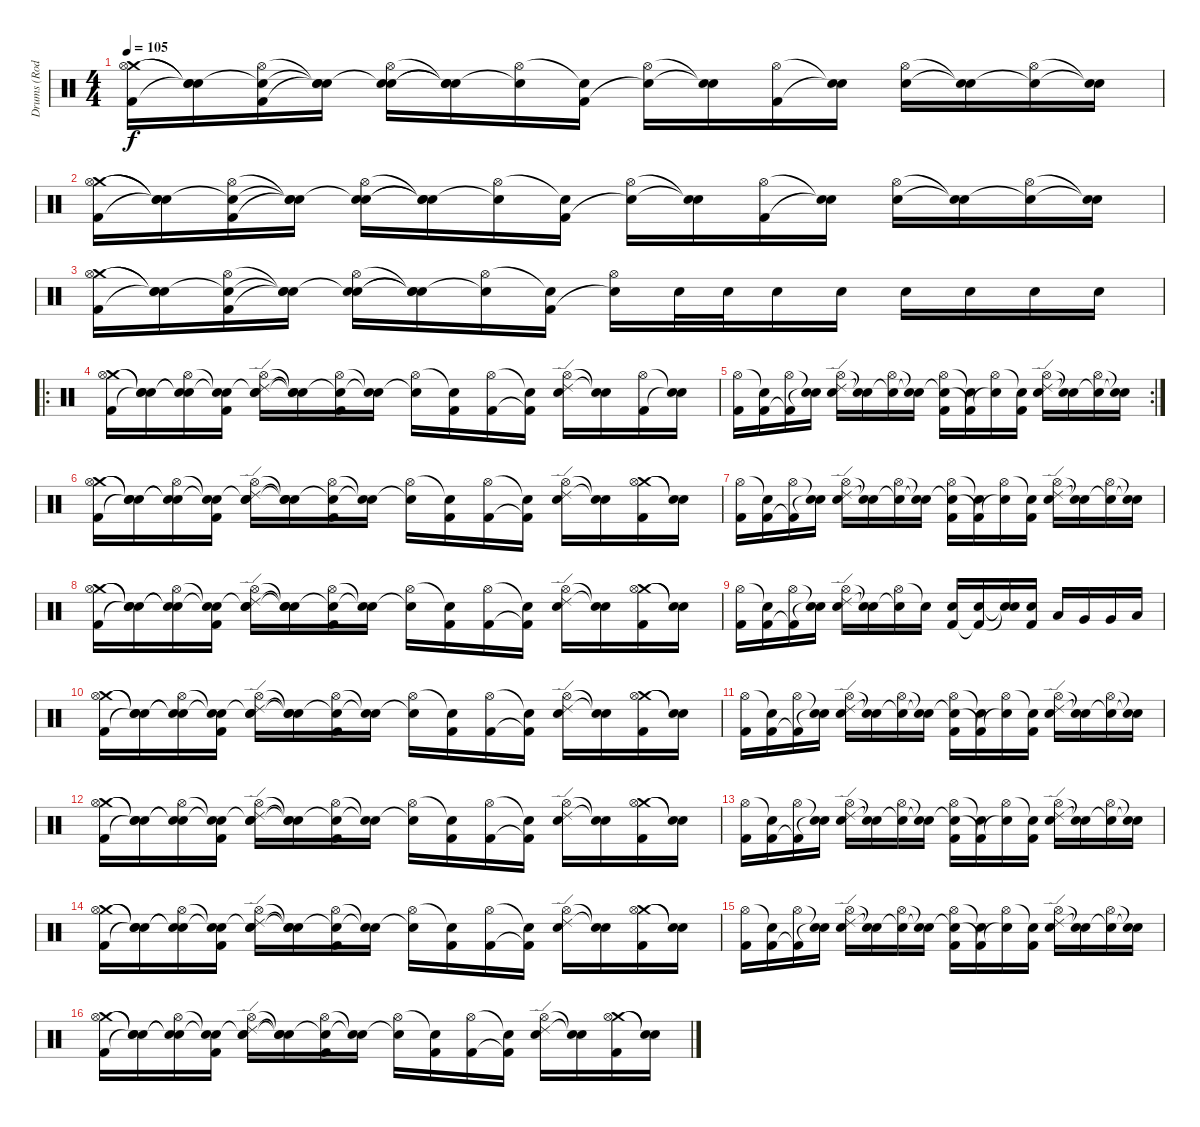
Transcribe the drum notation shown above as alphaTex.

\track ("Drums (Rod Bourdon)" "Drums (Rod") {instrument percussion}
\staff {score}
\articulation defaults
\ts (4 4)
\tempo 105
\clef neutral
\ks c
("Crash medium (hit)" "Hi-Hat (open)" "Kick (hit) 2").16{dy f} ("Snare (hit)"{t} "Snare (hit)"{t} "Snare (hit)"{t}).16 ("Snare (hit)"{t} "Hi-Hat (open)" "Kick (hit) 2").16 ("Snare (hit)"{t} "Snare (hit)"{t} "Snare (hit)"{t}).16 ("Snare (hit)"{t} "Hi-Hat (open)" "Electric Snare (hit)").16 ("Snare (hit)"{t} "Snare (hit)"{t} "Snare (hit)"{t}).16 ("Hi-Hat (open)" "Snare (hit)"{t}).16 ("Snare (hit)"{t} "Kick (hit) 2").16 ("Hi-Hat (open)" "Snare (hit)"{t}).16 ("Snare (hit)"{t} "Snare (hit)"{t}).16 ("Hi-Hat (open)" "Kick (hit) 2").16 ("Snare (hit)"{t} "Snare (hit)"{t}).16 ("Hi-Hat (open)" "Electric Snare (hit)").16 ("Snare (hit)"{t} "Snare (hit)"{t}).16 ("Hi-Hat (open)" "Snare (hit)"{t}).16 ("Snare (hit)"{t} "Snare (hit)"{t}).16 |
("Crash medium (hit)" "Hi-Hat (open)" "Kick (hit) 2").16 ("Snare (hit)"{t} "Snare (hit)"{t} "Snare (hit)"{t}).16 ("Snare (hit)"{t} "Hi-Hat (open)" "Kick (hit) 2").16 ("Snare (hit)"{t} "Snare (hit)"{t} "Snare (hit)"{t}).16 ("Snare (hit)"{t} "Hi-Hat (open)" "Electric Snare (hit)").16 ("Snare (hit)"{t} "Snare (hit)"{t} "Snare (hit)"{t}).16 ("Hi-Hat (open)" "Snare (hit)"{t}).16 ("Snare (hit)"{t} "Kick (hit) 2").16 ("Hi-Hat (open)" "Snare (hit)"{t}).16 ("Snare (hit)"{t} "Snare (hit)"{t}).16 ("Hi-Hat (open)" "Kick (hit) 2").16 ("Snare (hit)"{t} "Snare (hit)"{t}).16 ("Hi-Hat (open)" "Electric Snare (hit)").16 ("Snare (hit)"{t} "Snare (hit)"{t}).16 ("Hi-Hat (open)" "Snare (hit)"{t}).16 ("Snare (hit)"{t} "Snare (hit)"{t}).16 |
("Crash medium (hit)" "Hi-Hat (open)" "Kick (hit) 2").16 ("Snare (hit)"{t} "Snare (hit)"{t} "Snare (hit)"{t}).16 ("Snare (hit)"{t} "Hi-Hat (open)" "Kick (hit) 2").16 ("Snare (hit)"{t} "Snare (hit)"{t} "Snare (hit)"{t}).16 ("Snare (hit)"{t} "Hi-Hat (open)" "Electric Snare (hit)").16 ("Snare (hit)"{t} "Snare (hit)"{t} "Snare (hit)"{t}).16 ("Hi-Hat (open)" "Snare (hit)"{t}).16 ("Snare (hit)"{t} "Kick (hit) 2").16 ("Hi-Hat (open)" "Snare (hit)"{t}).16 "Electric Snare (hit)".32 "Electric Snare (hit)".32 "Electric Snare (hit)".16 "Electric Snare (hit)".16 "Electric Snare (hit)".16 "Electric Snare (hit)".16 "Electric Snare (hit)".16 "Electric Snare (hit)".16 |
\ro
("Crash medium (hit)" "Hi-Hat (open)" "Kick (hit) 2").16 ("Snare (hit)"{t} "Snare (hit)"{t} "Snare (hit)"{t}).16 ("Snare (hit)"{t} "Hi-Hat (open)" "Snare (hit)"{t}).16 ("Snare (hit)"{t} "Snare (hit)"{t} "Kick (hit) 2").16 ("Snare (hit)"{t} "Hi-Hat (open)" "Ride (edge) 2" "Electric Snare (hit)").16 ("Snare (hit)"{t} "Snare (hit)"{t} "Snare (hit)"{t}).16 ("Snare (hit)"{t} "Hi-Hat (open)" "Kick (hit) 2").16 ("Snare (hit)"{t} "Snare (hit)"{t}).16 ("Hi-Hat (open)" "Snare (hit)"{t}).16 ("Snare (hit)"{t} "Kick (hit) 2").16 ("Hi-Hat (open)" "Kick (hit) 2").16 ("Snare (hit)"{t} "Kick (hit) 2"{t}).16 ("Hi-Hat (open)" "Ride (edge) 2" "Electric Snare (hit)").16 ("Snare (hit)"{t} "Snare (hit)"{t}).16 ("Hi-Hat (open)" "Kick (hit) 2").16 ("Snare (hit)"{t} "Snare (hit)"{t}).16 |
\rc 2
("Hi-Hat (open)" "Kick (hit) 2").16 ("Snare (hit)"{t} "Kick (hit) 2").16 ("Hi-Hat (open)" "Kick (hit) 2"{t}).16 ("Snare (hit)"{t} "Snare (hit)"{t}).16 ("Hi-Hat (open)" "Ride (edge) 2" "Electric Snare (hit)").16 ("Snare (hit)"{t} "Snare (hit)"{t}).16 ("Hi-Hat (open)" "Snare (hit)"{t}).16 ("Snare (hit)"{t} "Snare (hit)"{t}).16 ("Hi-Hat (open)" "Snare (hit)"{t} "Kick (hit) 2").16 ("Snare (hit)"{t} "Kick (hit) 2"{t}).16 ("Hi-Hat (open)" "Snare (hit)"{t}).16 ("Snare (hit)"{t} "Kick (hit) 2").16 ("Hi-Hat (open)" "Ride (edge) 2" "Electric Snare (hit)").16 ("Snare (hit)"{t} "Snare (hit)"{t}).16 ("Hi-Hat (open)" "Snare (hit)"{t}).16 ("Snare (hit)"{t} "Snare (hit)"{t}).16 |
("Crash medium (hit)" "Hi-Hat (open)" "Kick (hit) 2").16 ("Snare (hit)"{t} "Snare (hit)"{t} "Snare (hit)"{t}).16 ("Snare (hit)"{t} "Hi-Hat (open)" "Snare (hit)"{t}).16 ("Snare (hit)"{t} "Snare (hit)"{t} "Kick (hit) 2").16 ("Snare (hit)"{t} "Hi-Hat (open)" "Ride (edge) 2" "Electric Snare (hit)").16 ("Snare (hit)"{t} "Snare (hit)"{t} "Snare (hit)"{t}).16 ("Snare (hit)"{t} "Hi-Hat (open)" "Kick (hit) 2").16 ("Snare (hit)"{t} "Snare (hit)"{t}).16 ("Hi-Hat (open)" "Snare (hit)"{t}).16 ("Snare (hit)"{t} "Kick (hit) 2").16 ("Hi-Hat (open)" "Kick (hit) 2").16 ("Snare (hit)"{t} "Kick (hit) 2"{t}).16 ("Hi-Hat (open)" "Ride (edge) 2" "Electric Snare (hit)").16 ("Snare (hit)"{t} "Snare (hit)"{t}).16 ("Crash medium (hit)" "Hi-Hat (open)" "Kick (hit) 2").16 ("Snare (hit)"{t} "Snare (hit)"{t}).16 |
("Hi-Hat (open)" "Kick (hit) 2").16 ("Snare (hit)"{t} "Kick (hit) 2").16 ("Hi-Hat (open)" "Kick (hit) 2"{t}).16 ("Snare (hit)"{t} "Snare (hit)"{t}).16 ("Hi-Hat (open)" "Ride (edge) 2" "Electric Snare (hit)").16 ("Snare (hit)"{t} "Snare (hit)"{t}).16 ("Hi-Hat (open)" "Snare (hit)"{t}).16 ("Snare (hit)"{t} "Snare (hit)"{t}).16 ("Hi-Hat (open)" "Snare (hit)"{t} "Kick (hit) 2").16 ("Snare (hit)"{t} "Kick (hit) 2"{t}).16 ("Hi-Hat (open)" "Snare (hit)"{t}).16 ("Snare (hit)"{t} "Kick (hit) 2").16 ("Hi-Hat (open)" "Ride (edge) 2" "Electric Snare (hit)").16 ("Snare (hit)"{t} "Snare (hit)"{t}).16 ("Hi-Hat (open)" "Snare (hit)"{t}).16 ("Snare (hit)"{t} "Snare (hit)"{t}).16 |
("Crash medium (hit)" "Hi-Hat (open)" "Kick (hit) 2").16 ("Snare (hit)"{t} "Snare (hit)"{t} "Snare (hit)"{t}).16 ("Snare (hit)"{t} "Hi-Hat (open)" "Snare (hit)"{t}).16 ("Snare (hit)"{t} "Snare (hit)"{t} "Kick (hit) 2").16 ("Snare (hit)"{t} "Hi-Hat (open)" "Ride (edge) 2" "Electric Snare (hit)").16 ("Snare (hit)"{t} "Snare (hit)"{t} "Snare (hit)"{t}).16 ("Snare (hit)"{t} "Hi-Hat (open)" "Kick (hit) 2").16 ("Snare (hit)"{t} "Snare (hit)"{t}).16 ("Hi-Hat (open)" "Snare (hit)"{t}).16 ("Snare (hit)"{t} "Kick (hit) 2").16 ("Hi-Hat (open)" "Kick (hit) 2").16 ("Snare (hit)"{t} "Kick (hit) 2"{t}).16 ("Hi-Hat (open)" "Ride (edge) 2" "Electric Snare (hit)").16 ("Snare (hit)"{t} "Snare (hit)"{t}).16 ("Crash medium (hit)" "Hi-Hat (open)" "Kick (hit) 2").16 ("Snare (hit)"{t} "Snare (hit)"{t}).16 |
("Hi-Hat (open)" "Kick (hit) 2").16 ("Snare (hit)"{t} "Kick (hit) 2").16 ("Hi-Hat (open)" "Kick (hit) 2"{t}).16 ("Snare (hit)"{t} "Snare (hit)"{t}).16 ("Hi-Hat (open)" "Ride (edge) 2" "Electric Snare (hit)").16 ("Snare (hit)"{t} "Snare (hit)"{t}).16 ("Hi-Hat (open)" "Snare (hit)"{t}).16 "Snare (hit)"{t}.16 ("Electric Snare (hit)" "Kick (hit) 2").16 ("Electric Snare (hit)" "Kick (hit) 2"{t}).16 ("Electric Snare (hit)"{t} "Snare (hit)"{t}).16 ("Electric Snare (hit)" "Kick (hit) 2").16 "Low Tom (hit)".16 "Very Low Tom (hit)".16 "Very Low Tom (hit)".16 "Low Floor Tom (hit)".16 |
("Crash medium (hit)" "Hi-Hat (open)" "Kick (hit) 2").16 ("Snare (hit)"{t} "Snare (hit)"{t} "Snare (hit)"{t}).16 ("Snare (hit)"{t} "Hi-Hat (open)" "Snare (hit)"{t}).16 ("Snare (hit)"{t} "Snare (hit)"{t} "Kick (hit) 2").16 ("Snare (hit)"{t} "Hi-Hat (open)" "Ride (edge) 2" "Electric Snare (hit)").16 ("Snare (hit)"{t} "Snare (hit)"{t} "Snare (hit)"{t}).16 ("Snare (hit)"{t} "Hi-Hat (open)" "Kick (hit) 2").16 ("Snare (hit)"{t} "Snare (hit)"{t}).16 ("Hi-Hat (open)" "Snare (hit)"{t}).16 ("Snare (hit)"{t} "Kick (hit) 2").16 ("Hi-Hat (open)" "Kick (hit) 2").16 ("Snare (hit)"{t} "Kick (hit) 2"{t}).16 ("Hi-Hat (open)" "Ride (edge) 2" "Electric Snare (hit)").16 ("Snare (hit)"{t} "Snare (hit)"{t}).16 ("Crash medium (hit)" "Hi-Hat (open)" "Kick (hit) 2").16 ("Snare (hit)"{t} "Snare (hit)"{t}).16 |
("Hi-Hat (open)" "Kick (hit) 2").16 ("Snare (hit)"{t} "Kick (hit) 2").16 ("Hi-Hat (open)" "Kick (hit) 2"{t}).16 ("Snare (hit)"{t} "Snare (hit)"{t}).16 ("Hi-Hat (open)" "Ride (edge) 2" "Electric Snare (hit)").16 ("Snare (hit)"{t} "Snare (hit)"{t}).16 ("Hi-Hat (open)" "Snare (hit)"{t}).16 ("Snare (hit)"{t} "Snare (hit)"{t}).16 ("Hi-Hat (open)" "Snare (hit)"{t} "Kick (hit) 2").16 ("Snare (hit)"{t} "Kick (hit) 2"{t}).16 ("Hi-Hat (open)" "Snare (hit)"{t}).16 ("Snare (hit)"{t} "Kick (hit) 2").16 ("Hi-Hat (open)" "Ride (edge) 2" "Electric Snare (hit)").16 ("Snare (hit)"{t} "Snare (hit)"{t}).16 ("Hi-Hat (open)" "Snare (hit)"{t}).16 ("Snare (hit)"{t} "Snare (hit)"{t}).16 |
("Crash medium (hit)" "Hi-Hat (open)" "Kick (hit) 2").16 ("Snare (hit)"{t} "Snare (hit)"{t} "Snare (hit)"{t}).16 ("Snare (hit)"{t} "Hi-Hat (open)" "Snare (hit)"{t}).16 ("Snare (hit)"{t} "Snare (hit)"{t} "Kick (hit) 2").16 ("Snare (hit)"{t} "Hi-Hat (open)" "Ride (edge) 2" "Electric Snare (hit)").16 ("Snare (hit)"{t} "Snare (hit)"{t} "Snare (hit)"{t}).16 ("Snare (hit)"{t} "Hi-Hat (open)" "Kick (hit) 2").16 ("Snare (hit)"{t} "Snare (hit)"{t}).16 ("Hi-Hat (open)" "Snare (hit)"{t}).16 ("Snare (hit)"{t} "Kick (hit) 2").16 ("Hi-Hat (open)" "Kick (hit) 2").16 ("Snare (hit)"{t} "Kick (hit) 2"{t}).16 ("Hi-Hat (open)" "Ride (edge) 2" "Electric Snare (hit)").16 ("Snare (hit)"{t} "Snare (hit)"{t}).16 ("Crash medium (hit)" "Hi-Hat (open)" "Kick (hit) 2").16 ("Snare (hit)"{t} "Snare (hit)"{t}).16 |
("Hi-Hat (open)" "Kick (hit) 2").16 ("Snare (hit)"{t} "Kick (hit) 2").16 ("Hi-Hat (open)" "Kick (hit) 2"{t}).16 ("Snare (hit)"{t} "Snare (hit)"{t}).16 ("Hi-Hat (open)" "Ride (edge) 2" "Electric Snare (hit)").16 ("Snare (hit)"{t} "Snare (hit)"{t}).16 ("Hi-Hat (open)" "Snare (hit)"{t}).16 ("Snare (hit)"{t} "Snare (hit)"{t}).16 ("Hi-Hat (open)" "Snare (hit)"{t} "Kick (hit) 2").16 ("Snare (hit)"{t} "Kick (hit) 2"{t}).16 ("Hi-Hat (open)" "Snare (hit)"{t}).16 ("Snare (hit)"{t} "Kick (hit) 2").16 ("Hi-Hat (open)" "Ride (edge) 2" "Electric Snare (hit)").16 ("Snare (hit)"{t} "Snare (hit)"{t}).16 ("Hi-Hat (open)" "Snare (hit)"{t}).16 ("Snare (hit)"{t} "Snare (hit)"{t}).16 |
("Crash medium (hit)" "Hi-Hat (open)" "Kick (hit) 2").16 ("Snare (hit)"{t} "Snare (hit)"{t} "Snare (hit)"{t}).16 ("Snare (hit)"{t} "Hi-Hat (open)" "Snare (hit)"{t}).16 ("Snare (hit)"{t} "Snare (hit)"{t} "Kick (hit) 2").16 ("Snare (hit)"{t} "Hi-Hat (open)" "Ride (edge) 2" "Electric Snare (hit)").16 ("Snare (hit)"{t} "Snare (hit)"{t} "Snare (hit)"{t}).16 ("Snare (hit)"{t} "Hi-Hat (open)" "Kick (hit) 2").16 ("Snare (hit)"{t} "Snare (hit)"{t}).16 ("Hi-Hat (open)" "Snare (hit)"{t}).16 ("Snare (hit)"{t} "Kick (hit) 2").16 ("Hi-Hat (open)" "Kick (hit) 2").16 ("Snare (hit)"{t} "Kick (hit) 2"{t}).16 ("Hi-Hat (open)" "Ride (edge) 2" "Electric Snare (hit)").16 ("Snare (hit)"{t} "Snare (hit)"{t}).16 ("Crash medium (hit)" "Hi-Hat (open)" "Kick (hit) 2").16 ("Snare (hit)"{t} "Snare (hit)"{t}).16 |
("Hi-Hat (open)" "Kick (hit) 2").16 ("Snare (hit)"{t} "Kick (hit) 2").16 ("Hi-Hat (open)" "Kick (hit) 2"{t}).16 ("Snare (hit)"{t} "Snare (hit)"{t}).16 ("Hi-Hat (open)" "Ride (edge) 2" "Electric Snare (hit)").16 ("Snare (hit)"{t} "Snare (hit)"{t}).16 ("Hi-Hat (open)" "Snare (hit)"{t}).16 ("Snare (hit)"{t} "Snare (hit)"{t}).16 ("Hi-Hat (open)" "Snare (hit)"{t} "Kick (hit) 2").16 ("Snare (hit)"{t} "Kick (hit) 2"{t}).16 ("Hi-Hat (open)" "Snare (hit)"{t}).16 ("Snare (hit)"{t} "Kick (hit) 2").16 ("Hi-Hat (open)" "Ride (edge) 2" "Electric Snare (hit)").16 ("Snare (hit)"{t} "Snare (hit)"{t}).16 ("Hi-Hat (open)" "Snare (hit)"{t}).16 ("Snare (hit)"{t} "Snare (hit)"{t}).16 |
("Crash medium (hit)" "Hi-Hat (open)" "Kick (hit) 2").16 ("Snare (hit)"{t} "Snare (hit)"{t} "Snare (hit)"{t}).16 ("Snare (hit)"{t} "Hi-Hat (open)" "Snare (hit)"{t}).16 ("Snare (hit)"{t} "Snare (hit)"{t} "Kick (hit) 2").16 ("Snare (hit)"{t} "Hi-Hat (open)" "Ride (edge) 2" "Electric Snare (hit)").16 ("Snare (hit)"{t} "Snare (hit)"{t} "Snare (hit)"{t}).16 ("Snare (hit)"{t} "Hi-Hat (open)" "Kick (hit) 2").16 ("Snare (hit)"{t} "Snare (hit)"{t}).16 ("Hi-Hat (open)" "Snare (hit)"{t}).16 ("Snare (hit)"{t} "Kick (hit) 2").16 ("Hi-Hat (open)" "Kick (hit) 2").16 ("Snare (hit)"{t} "Kick (hit) 2"{t}).16 ("Hi-Hat (open)" "Ride (edge) 2" "Electric Snare (hit)").16 ("Snare (hit)"{t} "Snare (hit)"{t}).16 ("Crash medium (hit)" "Hi-Hat (open)" "Kick (hit) 2").16 ("Snare (hit)"{t} "Snare (hit)"{t}).16
